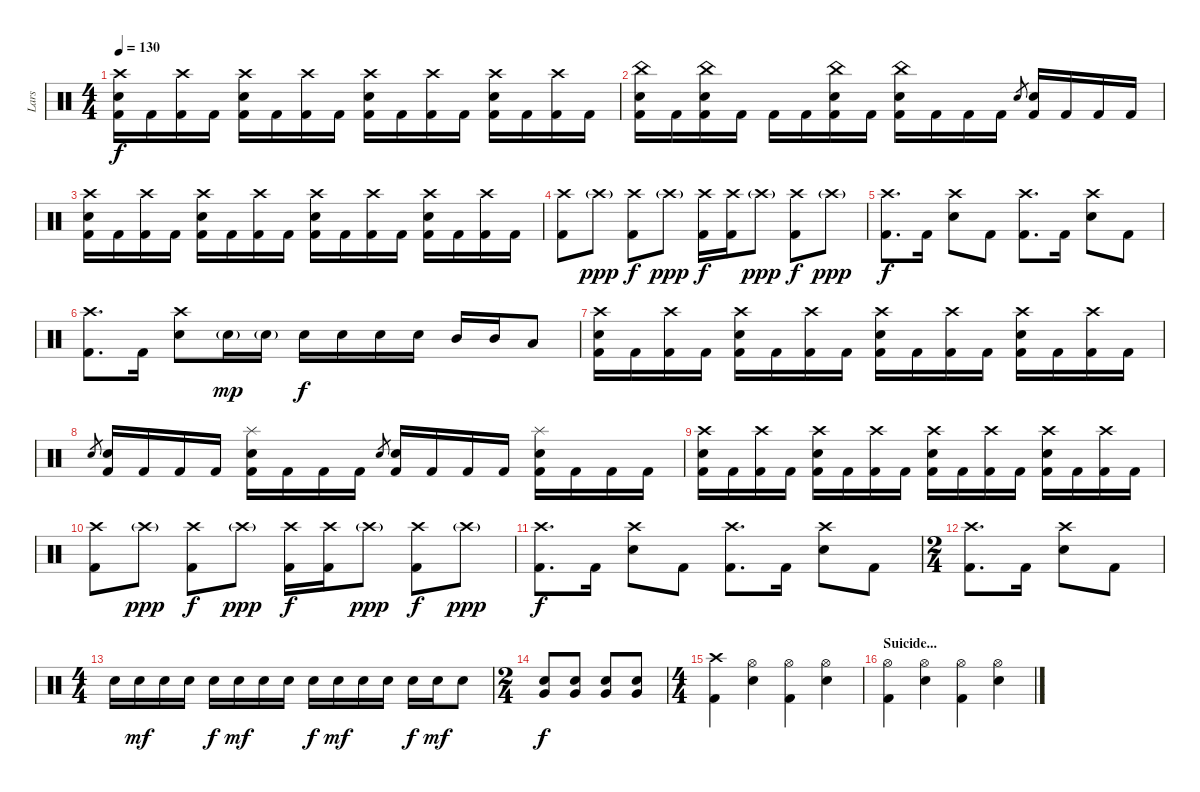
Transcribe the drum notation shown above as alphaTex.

\track ("Lars" "Lars") {instrument percussion}
\staff {score}
\articulation defaults
\ts (4 4)
\section ("" "")
\tempo 130
\clef neutral
\ks c
("Kick (hit) 2" "Electric Snare (hit)" "Crash high (hit)").16{dy f} "Kick (hit) 2".16 ("Kick (hit) 2" "Crash high (hit)").16 "Kick (hit) 2".16 ("Kick (hit) 2" "Electric Snare (hit)" "Crash high (hit)").16 "Kick (hit) 2".16 ("Kick (hit) 2" "Crash high (hit)").16 "Kick (hit) 2".16 ("Kick (hit) 2" "Electric Snare (hit)" "Crash high (hit)").16 "Kick (hit) 2".16 ("Kick (hit) 2" "Crash high (hit)").16 "Kick (hit) 2".16 ("Kick (hit) 2" "Electric Snare (hit)" "Crash high (hit)").16 "Kick (hit) 2".16 ("Kick (hit) 2" "Crash high (hit)").16 "Kick (hit) 2".16 |
("Kick (hit) 2" "Electric Snare (hit)" "China (hit)").16 "Kick (hit) 2".16 ("Kick (hit) 2" "Electric Snare (hit)" "China (hit)").16 "Kick (hit) 2".16 "Kick (hit) 2".16 "Kick (hit) 2".16 ("Kick (hit) 2" "Electric Snare (hit)" "China (hit)").16 "Kick (hit) 2".16 ("Kick (hit) 2" "Electric Snare (hit)" "China (hit)").16 "Kick (hit) 2".16 "Kick (hit) 2".16 "Kick (hit) 2".16 "Electric Snare (hit)".8{gr} ("Kick (hit) 2" "Electric Snare (hit)").16 "Kick (hit) 2".16 "Kick (hit) 2".16 "Kick (hit) 2".16 |
("Kick (hit) 2" "Electric Snare (hit)" "Crash high (hit)").16 "Kick (hit) 2".16 ("Kick (hit) 2" "Crash high (hit)").16 "Kick (hit) 2".16 ("Kick (hit) 2" "Electric Snare (hit)" "Crash high (hit)").16 "Kick (hit) 2".16 ("Kick (hit) 2" "Crash high (hit)").16 "Kick (hit) 2".16 ("Kick (hit) 2" "Electric Snare (hit)" "Crash high (hit)").16 "Kick (hit) 2".16 ("Kick (hit) 2" "Crash high (hit)").16 "Kick (hit) 2".16 ("Kick (hit) 2" "Electric Snare (hit)" "Crash high (hit)").16 "Kick (hit) 2".16 ("Kick (hit) 2" "Crash high (hit)").16 "Kick (hit) 2".16 |
("Kick (hit) 2" "Crash high (hit)").8 "Crash high (hit)"{g}.8{dy ppp} ("Kick (hit) 2" "Crash high (hit)").8{dy f} "Crash high (hit)"{g}.8{dy ppp} ("Kick (hit) 2" "Crash high (hit)").16{dy f} ("Kick (hit) 2" "Crash high (hit)").16 "Crash high (hit)"{g}.8{dy ppp} ("Kick (hit) 2" "Crash high (hit)").8{dy f} "Crash high (hit)"{g}.8{dy ppp} |
\section ("" "")
("Kick (hit) 2" "Crash high (hit)").8{d dy f} "Kick (hit) 2".16 ("Electric Snare (hit)" "Crash high (hit)").8 "Kick (hit) 2".8 ("Kick (hit) 2" "Crash high (hit)").8{d} "Kick (hit) 2".16 ("Electric Snare (hit)" "Crash high (hit)").8 "Kick (hit) 2".8 |
("Kick (hit) 2" "Crash high (hit)").8{d} "Kick (hit) 2".16 ("Electric Snare (hit)" "Crash high (hit)").8 "Electric Snare (hit)"{g}.16{dy mp} "Electric Snare (hit)"{g}.16 "Electric Snare (hit)".16{dy f} "Electric Snare (hit)".16 "Electric Snare (hit)".16 "Electric Snare (hit)".16 "Mid Tom (hit)".16 "Mid Tom (hit)".16 "Low Tom (hit)".8 |
("Kick (hit) 2" "Electric Snare (hit)" "Crash high (hit)").16 "Kick (hit) 2".16 ("Kick (hit) 2" "Crash high (hit)").16 "Kick (hit) 2".16 ("Kick (hit) 2" "Electric Snare (hit)" "Crash high (hit)").16 "Kick (hit) 2".16 ("Kick (hit) 2" "Crash high (hit)").16 "Kick (hit) 2".16 ("Kick (hit) 2" "Electric Snare (hit)" "Crash high (hit)").16 "Kick (hit) 2".16 ("Kick (hit) 2" "Crash high (hit)").16 "Kick (hit) 2".16 ("Kick (hit) 2" "Electric Snare (hit)" "Crash high (hit)").16 "Kick (hit) 2".16 ("Kick (hit) 2" "Crash high (hit)").16 "Kick (hit) 2".16 |
"Electric Snare (hit)".8{gr} ("Kick (hit) 2" "Electric Snare (hit)").16 "Kick (hit) 2".16 "Kick (hit) 2".16 "Kick (hit) 2".16 ("Kick (hit) 2" "Electric Snare (hit)" "Splash (hit)").16 "Kick (hit) 2".16 "Kick (hit) 2".16 "Kick (hit) 2".16 "Electric Snare (hit)".8{gr} ("Kick (hit) 2" "Electric Snare (hit)").16 "Kick (hit) 2".16 "Kick (hit) 2".16 "Kick (hit) 2".16 ("Kick (hit) 2" "Electric Snare (hit)" "Splash (hit)").16 "Kick (hit) 2".16 "Kick (hit) 2".16 "Kick (hit) 2".16 |
("Kick (hit) 2" "Electric Snare (hit)" "Crash high (hit)").16 "Kick (hit) 2".16 ("Kick (hit) 2" "Crash high (hit)").16 "Kick (hit) 2".16 ("Kick (hit) 2" "Electric Snare (hit)" "Crash high (hit)").16 "Kick (hit) 2".16 ("Kick (hit) 2" "Crash high (hit)").16 "Kick (hit) 2".16 ("Kick (hit) 2" "Electric Snare (hit)" "Crash high (hit)").16 "Kick (hit) 2".16 ("Kick (hit) 2" "Crash high (hit)").16 "Kick (hit) 2".16 ("Kick (hit) 2" "Electric Snare (hit)" "Crash high (hit)").16 "Kick (hit) 2".16 ("Kick (hit) 2" "Crash high (hit)").16 "Kick (hit) 2".16 |
("Kick (hit) 2" "Crash high (hit)").8 "Crash high (hit)"{g}.8{dy ppp} ("Kick (hit) 2" "Crash high (hit)").8{dy f} "Crash high (hit)"{g}.8{dy ppp} ("Kick (hit) 2" "Crash high (hit)").16{dy f} ("Kick (hit) 2" "Crash high (hit)").16 "Crash high (hit)"{g}.8{dy ppp} ("Kick (hit) 2" "Crash high (hit)").8{dy f} "Crash high (hit)"{g}.8{dy ppp} |
\section ("" "")
("Kick (hit) 2" "Crash high (hit)").8{d dy f} "Kick (hit) 2".16 ("Electric Snare (hit)" "Crash high (hit)").8 "Kick (hit) 2".8 ("Kick (hit) 2" "Crash high (hit)").8{d} "Kick (hit) 2".16 ("Electric Snare (hit)" "Crash high (hit)").8 "Kick (hit) 2".8 |
\ts (2 4)
("Kick (hit) 2" "Crash high (hit)").8{d} "Kick (hit) 2".16 ("Electric Snare (hit)" "Crash high (hit)").8 "Kick (hit) 2".8 |
\ts (4 4)
"Electric Snare (hit)".16 "Electric Snare (hit)".16{dy mf} "Electric Snare (hit)".16 "Electric Snare (hit)".16 "Electric Snare (hit)".16{dy f} "Electric Snare (hit)".16{dy mf} "Electric Snare (hit)".16 "Electric Snare (hit)".16 "Electric Snare (hit)".16{dy f} "Electric Snare (hit)".16{dy mf} "Electric Snare (hit)".16 "Electric Snare (hit)".16 "Electric Snare (hit)".16{dy f} "Electric Snare (hit)".16{dy mf} "Electric Snare (hit)".8 |
\ts (2 4)
("Electric Snare (hit)" "Very Low Tom (hit)").8{bu 120 dy f} ("Electric Snare (hit)" "Very Low Tom (hit)").8{bu 120} ("Electric Snare (hit)" "Very Low Tom (hit)").8{bu 120} ("Electric Snare (hit)" "Very Low Tom (hit)").8{bu 120} |
\ts (4 4)
("Kick (hit) 2" "Crash high (hit)").4 ("Electric Snare (hit)" "Hi-Hat (open)").4 ("Kick (hit) 2" "Hi-Hat (open)").4 ("Electric Snare (hit)" "Hi-Hat (open)").4 |
\section ("" "Suicide...")
("Kick (hit) 2" "Hi-Hat (open)").4 ("Electric Snare (hit)" "Hi-Hat (open)").4 ("Kick (hit) 2" "Hi-Hat (open)").4 ("Electric Snare (hit)" "Hi-Hat (open)").4
